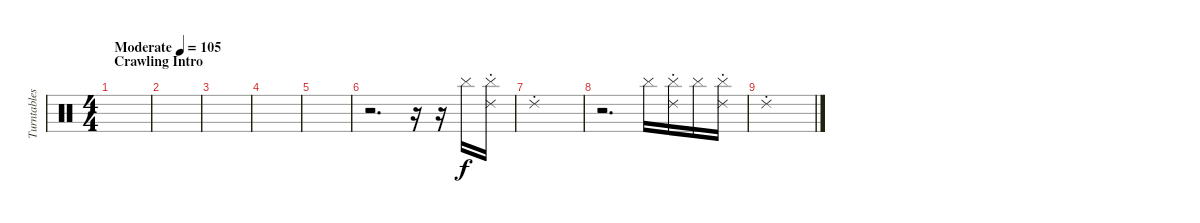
\track ("Turntables - Joe Hahn" "Turntables") {instrument percussion}
\staff {score}
\articulation defaults
\ts (4 4)
\section ("" "Crawling Intro")
\tempo (105 "Moderate")
\clef neutral
\ks c
|
|
|
|
|
r.2{d} r.16 r.16 "Cymbal (hit)".16 ("Cymbal (hit)" "Ride (choke) 2").16 |
"Ride (choke) 2".1 |
r.2{d} "Cymbal (hit)".16 ("Cymbal (hit)" "Ride (choke) 2").16 "Cymbal (hit)".16 ("Cymbal (hit)" "Ride (choke) 2").16 |
"Ride (choke) 2".1
